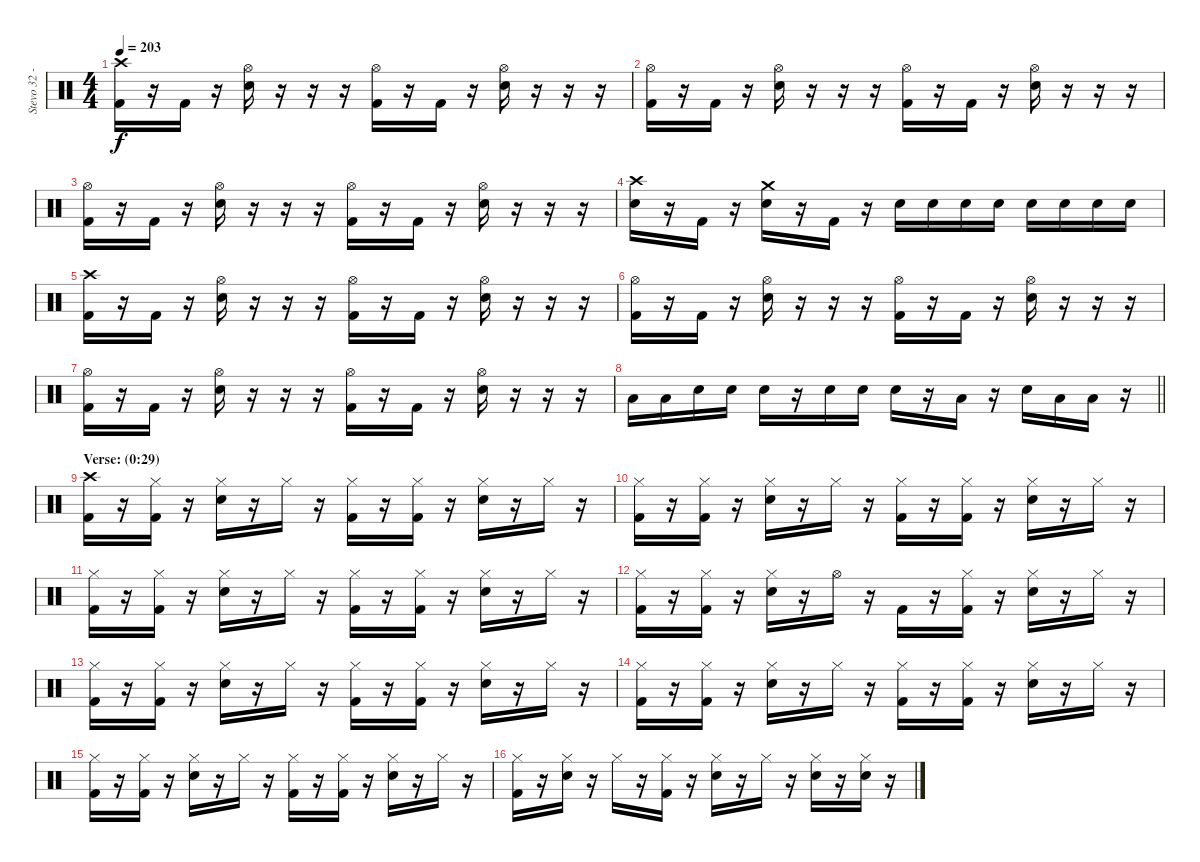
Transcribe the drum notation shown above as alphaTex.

\track ("Stevo 32 - Drums" "Stevo 32 -") {instrument percussion}
\staff {score}
\articulation defaults
\ts (4 4)
\tempo 203
\clef neutral
\ks c
("Crash high (hit)" "Kick (hit) 2").16{dy f} r.16 "Kick (hit) 2".16 r.16 ("Hi-Hat (open)" "Snare (hit) 2").16 r.16 r.16 r.16 ("Hi-Hat (open)" "Kick (hit) 2").16 r.16 "Kick (hit) 2".16 r.16 ("Hi-Hat (open)" "Snare (hit) 2").16 r.16 r.16 r.16 |
("Hi-Hat (open)" "Kick (hit) 2").16 r.16 "Kick (hit) 2".16 r.16 ("Hi-Hat (open)" "Snare (hit) 2").16 r.16 r.16 r.16 ("Hi-Hat (open)" "Kick (hit) 2").16 r.16 "Kick (hit) 2".16 r.16 ("Hi-Hat (open)" "Snare (hit) 2").16 r.16 r.16 r.16 |
("Hi-Hat (open)" "Kick (hit) 2").16 r.16 "Kick (hit) 2".16 r.16 ("Hi-Hat (open)" "Snare (hit) 2").16 r.16 r.16 r.16 ("Hi-Hat (open)" "Kick (hit) 2").16 r.16 "Kick (hit) 2".16 r.16 ("Hi-Hat (open)" "Snare (hit) 2").16 r.16 r.16 r.16 |
("Crash high (hit)" "Snare (hit) 2").16 r.16 "Kick (hit) 2".16 r.16 ("Crash medium (hit)" "Snare (hit) 2").16 r.16 "Kick (hit) 2".16 r.16 "Snare (hit) 2".16 "Snare (hit) 2".16 "Snare (hit) 2".16 "Snare (hit) 2".16 "Snare (hit) 2".16 "Snare (hit) 2".16 "Snare (hit) 2".16 "Snare (hit) 2".16 |
("Crash high (hit)" "Kick (hit) 2").16 r.16 "Kick (hit) 2".16 r.16 ("Hi-Hat (open)" "Snare (hit) 2").16 r.16 r.16 r.16 ("Hi-Hat (open)" "Kick (hit) 2").16 r.16 "Kick (hit) 2".16 r.16 ("Hi-Hat (open)" "Snare (hit) 2").16 r.16 r.16 r.16 |
("Hi-Hat (open)" "Kick (hit) 2").16 r.16 "Kick (hit) 2".16 r.16 ("Hi-Hat (open)" "Snare (hit) 2").16 r.16 r.16 r.16 ("Hi-Hat (open)" "Kick (hit) 2").16 r.16 "Kick (hit) 2".16 r.16 ("Hi-Hat (open)" "Snare (hit) 2").16 r.16 r.16 r.16 |
("Hi-Hat (open)" "Kick (hit) 2").16 r.16 "Kick (hit) 2".16 r.16 ("Hi-Hat (open)" "Snare (hit) 2").16 r.16 r.16 r.16 ("Hi-Hat (open)" "Kick (hit) 2").16 r.16 "Kick (hit) 2".16 r.16 ("Hi-Hat (open)" "Snare (hit) 2").16 r.16 r.16 r.16 |
\barLineRight lightlight "Low Tom (hit)".16 "Low Tom (hit)".16 "Snare (hit) 2".16 "Snare (hit) 2".16 "Snare (hit) 2".16
r.16 "Snare (hit) 2".16 "Snare (hit) 2".16 "Snare (hit) 2".16 r.16 "Low Tom (hit)".16 r.16 "Snare (hit) 2".16 "Low Tom (hit)".16 "Low Tom (hit)".16 r.16 |
\section ("" "Verse: (0:29)")
("Crash high (hit)" "Kick (hit) 2").16 r.16 ("Hi-Hat (closed)" "Kick (hit) 2").16 r.16 ("Hi-Hat (closed)" "Snare (hit) 2").16 r.16 "Hi-Hat (closed)".16 r.16 ("Hi-Hat (closed)" "Kick (hit) 2").16 r.16 ("Hi-Hat (closed)" "Kick (hit) 2").16 r.16 ("Hi-Hat (closed)" "Snare (hit) 2").16 r.16 "Hi-Hat (closed)".16 r.16 |
("Hi-Hat (closed)" "Kick (hit) 2").16 r.16 ("Hi-Hat (closed)" "Kick (hit) 2").16 r.16 ("Hi-Hat (closed)" "Snare (hit) 2").16 r.16 "Hi-Hat (closed)".16 r.16 ("Hi-Hat (closed)" "Kick (hit) 2").16 r.16 ("Hi-Hat (closed)" "Kick (hit) 2").16 r.16 ("Hi-Hat (closed)" "Snare (hit) 2").16 r.16 "Hi-Hat (closed)".16 r.16 |
("Hi-Hat (closed)" "Kick (hit) 2").16 r.16 ("Hi-Hat (closed)" "Kick (hit) 2").16 r.16 ("Hi-Hat (closed)" "Snare (hit) 2").16 r.16 "Hi-Hat (closed)".16 r.16 ("Hi-Hat (closed)" "Kick (hit) 2").16 r.16 ("Hi-Hat (closed)" "Kick (hit) 2").16 r.16 ("Hi-Hat (closed)" "Snare (hit) 2").16 r.16 "Hi-Hat (closed)".16 r.16 |
("Hi-Hat (closed)" "Kick (hit) 2").16 r.16 ("Hi-Hat (closed)" "Kick (hit) 2").16 r.16 ("Hi-Hat (closed)" "Snare (hit) 2").16 r.16 "Hi-Hat (open)".16 r.16 "Kick (hit) 2".16 r.16 ("Hi-Hat (closed)" "Kick (hit) 2").16 r.16 ("Hi-Hat (closed)" "Snare (hit) 2").16 r.16 "Hi-Hat (closed)".16 r.16 |
("Hi-Hat (closed)" "Kick (hit) 2").16 r.16 ("Hi-Hat (closed)" "Kick (hit) 2").16 r.16 ("Hi-Hat (closed)" "Snare (hit) 2").16 r.16 "Hi-Hat (closed)".16 r.16 ("Hi-Hat (closed)" "Kick (hit) 2").16 r.16 ("Hi-Hat (closed)" "Kick (hit) 2").16 r.16 ("Hi-Hat (closed)" "Snare (hit) 2").16 r.16 "Hi-Hat (closed)".16 r.16 |
("Hi-Hat (closed)" "Kick (hit) 2").16 r.16 ("Hi-Hat (closed)" "Kick (hit) 2").16 r.16 ("Hi-Hat (closed)" "Snare (hit) 2").16 r.16 "Hi-Hat (closed)".16 r.16 ("Hi-Hat (closed)" "Kick (hit) 2").16 r.16 ("Hi-Hat (closed)" "Kick (hit) 2").16 r.16 ("Hi-Hat (closed)" "Snare (hit) 2").16 r.16 "Hi-Hat (closed)".16 r.16 |
("Hi-Hat (closed)" "Kick (hit) 2").16 r.16 ("Hi-Hat (closed)" "Kick (hit) 2").16 r.16 ("Hi-Hat (closed)" "Snare (hit) 2").16 r.16 "Hi-Hat (closed)".16 r.16 ("Hi-Hat (closed)" "Kick (hit) 2").16 r.16 ("Hi-Hat (closed)" "Kick (hit) 2").16 r.16 ("Hi-Hat (closed)" "Snare (hit) 2").16 r.16 "Hi-Hat (closed)".16 r.16 |
("Hi-Hat (closed)" "Kick (hit) 2").16 r.16 ("Hi-Hat (closed)" "Snare (hit) 2").16 r.16 "Hi-Hat (closed)".16 r.16 ("Hi-Hat (closed)" "Kick (hit) 2").16 r.16 ("Hi-Hat (closed)" "Snare (hit) 2").16 r.16 "Hi-Hat (closed)".16 r.16 ("Hi-Hat (closed)" "Snare (hit) 2").16 r.16 ("Hi-Hat (closed)" "Snare (hit) 2").16 r.16
